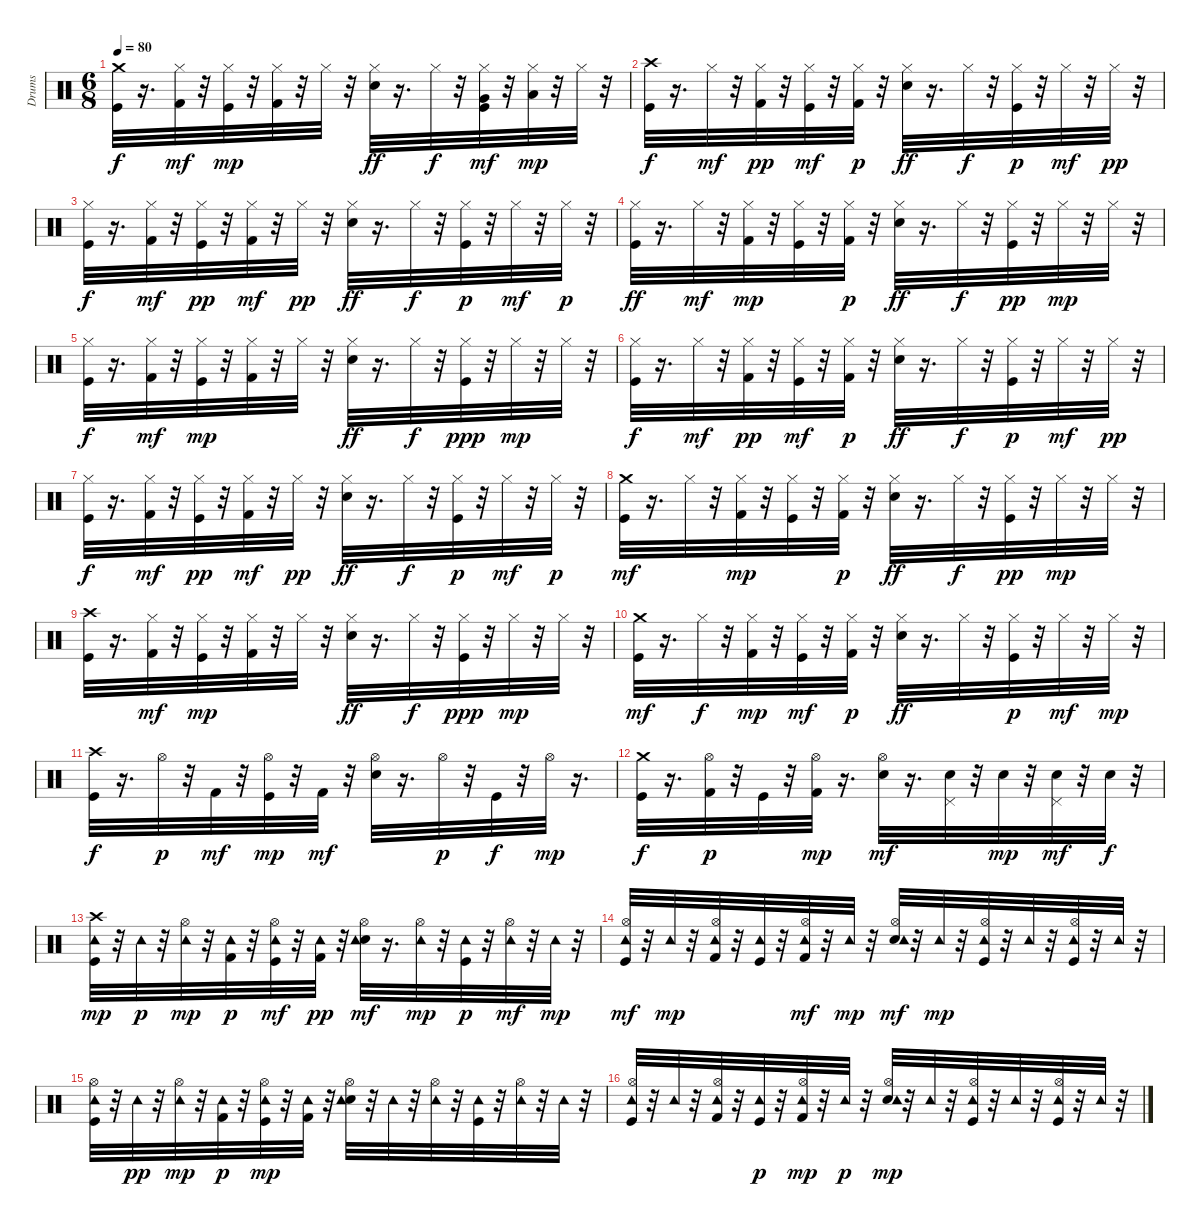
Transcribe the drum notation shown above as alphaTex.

\track ("Drums" "Drums") {instrument percussion}
\staff {score}
\articulation defaults
\ts (6 8)
\tempo 80
\clef neutral
\ks c
("Kick (hit)" "Crash medium (hit)").32{dy f} r.16{d} ("Kick (hit) 2" "Hi-Hat (closed)").32{dy mf} r.32 ("Kick (hit)" "Hi-Hat (closed)").32{dy mp} r.32 ("Kick (hit) 2" "Hi-Hat (closed)").32 r.32 "Hi-Hat (closed)".32 r.32 ("Electric Snare (hit)" "Hi-Hat (closed)").32{dy ff} r.16{d} "Hi-Hat (closed)".32{dy f} r.32 ("Kick (hit)" "Hi-Hat (closed)" "Very Low Tom (hit)").32{dy mf} r.32 ("Low Floor Tom (hit)" "Hi-Hat (closed)").32{dy mp} r.32 "Hi-Hat (closed)".32 r.32 |
("Kick (hit)" "Crash high (hit)").32{dy f} r.16{d} "Hi-Hat (closed)".32{dy mf} r.32 ("Kick (hit) 2" "Hi-Hat (closed)").32{dy pp} r.32 ("Kick (hit)" "Hi-Hat (closed)").32{dy mf} r.32 ("Kick (hit) 2" "Hi-Hat (closed)").32{dy p} r.32 ("Electric Snare (hit)" "Hi-Hat (closed)").32{dy ff} r.16{d} "Hi-Hat (closed)".32{dy f} r.32 ("Kick (hit)" "Hi-Hat (closed)").32{dy p} r.32 "Hi-Hat (closed)".32{dy mf} r.32 "Hi-Hat (closed)".32{dy pp} r.32 |
("Kick (hit)" "Hi-Hat (closed)").32{dy f} r.16{d} ("Kick (hit) 2" "Hi-Hat (closed)").32{dy mf} r.32 ("Kick (hit)" "Hi-Hat (closed)").32{dy pp} r.32 ("Kick (hit) 2" "Hi-Hat (closed)").32{dy mf} r.32 "Hi-Hat (closed)".32{dy pp} r.32 ("Electric Snare (hit)" "Hi-Hat (closed)").32{dy ff} r.16{d} "Hi-Hat (closed)".32{dy f} r.32 ("Kick (hit)" "Hi-Hat (closed)").32{dy p} r.32 "Hi-Hat (closed)".32{dy mf} r.32 "Hi-Hat (closed)".32{dy p} r.32 |
("Kick (hit)" "Hi-Hat (closed)").32{dy ff} r.16{d} "Hi-Hat (closed)".32{dy mf} r.32 ("Kick (hit) 2" "Hi-Hat (closed)").32{dy mp} r.32 ("Kick (hit)" "Hi-Hat (closed)").32 r.32 ("Kick (hit) 2" "Hi-Hat (closed)").32{dy p} r.32 ("Electric Snare (hit)" "Hi-Hat (closed)").32{dy ff} r.16{d} "Hi-Hat (closed)".32{dy f} r.32 ("Kick (hit)" "Hi-Hat (closed)").32{dy pp} r.32 "Hi-Hat (closed)".32{dy mp} r.32 "Hi-Hat (closed)".32 r.32 |
("Kick (hit)" "Hi-Hat (closed)").32{dy f} r.16{d} ("Kick (hit) 2" "Hi-Hat (closed)").32{dy mf} r.32 ("Kick (hit)" "Hi-Hat (closed)").32{dy mp} r.32 ("Kick (hit) 2" "Hi-Hat (closed)").32 r.32 "Hi-Hat (closed)".32 r.32 ("Electric Snare (hit)" "Hi-Hat (closed)").32{dy ff} r.16{d} "Hi-Hat (closed)".32{dy f} r.32 ("Kick (hit)" "Hi-Hat (closed)").32{dy ppp} r.32 "Hi-Hat (closed)".32{dy mp} r.32 "Hi-Hat (closed)".32 r.32 |
("Kick (hit)" "Hi-Hat (closed)").32{dy f} r.16{d} "Hi-Hat (closed)".32{dy mf} r.32 ("Kick (hit) 2" "Hi-Hat (closed)").32{dy pp} r.32 ("Kick (hit)" "Hi-Hat (closed)").32{dy mf} r.32 ("Kick (hit) 2" "Hi-Hat (closed)").32{dy p} r.32 ("Electric Snare (hit)" "Hi-Hat (closed)").32{dy ff} r.16{d} "Hi-Hat (closed)".32{dy f} r.32 ("Kick (hit)" "Hi-Hat (closed)").32{dy p} r.32 "Hi-Hat (closed)".32{dy mf} r.32 "Hi-Hat (closed)".32{dy pp} r.32 |
("Kick (hit)" "Hi-Hat (closed)").32{dy f} r.16{d} ("Kick (hit) 2" "Hi-Hat (closed)").32{dy mf} r.32 ("Kick (hit)" "Hi-Hat (closed)").32{dy pp} r.32 ("Kick (hit) 2" "Hi-Hat (closed)").32{dy mf} r.32 "Hi-Hat (closed)".32{dy pp} r.32 ("Electric Snare (hit)" "Hi-Hat (closed)").32{dy ff} r.16{d} "Hi-Hat (closed)".32{dy f} r.32 ("Kick (hit)" "Hi-Hat (closed)").32{dy p} r.32 "Hi-Hat (closed)".32{dy mf} r.32 "Hi-Hat (closed)".32{dy p} r.32 |
("Kick (hit)" "Crash medium (hit)").32{dy mf} r.16{d} "Hi-Hat (closed)".32 r.32 ("Kick (hit) 2" "Hi-Hat (closed)").32{dy mp} r.32 ("Kick (hit)" "Hi-Hat (closed)").32 r.32 ("Kick (hit) 2" "Hi-Hat (closed)").32{dy p} r.32 ("Electric Snare (hit)" "Hi-Hat (closed)").32{dy ff} r.16{d} "Hi-Hat (closed)".32{dy f} r.32 ("Kick (hit)" "Hi-Hat (closed)").32{dy pp} r.32 "Hi-Hat (closed)".32{dy mp} r.32 "Hi-Hat (closed)".32 r.32 |
("Kick (hit)" "Crash high (hit)").32 r.16{d} ("Kick (hit) 2" "Hi-Hat (closed)").32{dy mf} r.32 ("Kick (hit)" "Hi-Hat (closed)").32{dy mp} r.32 ("Kick (hit) 2" "Hi-Hat (closed)").32 r.32 "Hi-Hat (closed)".32 r.32 ("Electric Snare (hit)" "Hi-Hat (closed)").32{dy ff} r.16{d} "Hi-Hat (closed)".32{dy f} r.32 ("Kick (hit)" "Hi-Hat (closed)").32{dy ppp} r.32 "Hi-Hat (closed)".32{dy mp} r.32 "Hi-Hat (closed)".32 r.32 |
("Kick (hit)" "Crash medium (hit)").32{dy mf} r.16{d} "Hi-Hat (closed)".32{dy f} r.32 ("Kick (hit) 2" "Hi-Hat (closed)").32{dy mp} r.32 ("Kick (hit)" "Hi-Hat (closed)").32{dy mf} r.32 ("Kick (hit) 2" "Hi-Hat (closed)").32{dy p} r.32 ("Electric Snare (hit)" "Hi-Hat (closed)").32{dy ff} r.16{d} "Hi-Hat (closed)".32 r.32 ("Kick (hit)" "Hi-Hat (closed)").32{dy p} r.32 "Hi-Hat (closed)".32{dy mf} r.32 "Hi-Hat (closed)".32{dy mp} r.32 |
("Kick (hit)" "Crash high (hit)").32{dy f} r.16{d} "Hi-Hat (open)".32{dy p} r.32 "Kick (hit) 2".32{dy mf} r.32 ("Kick (hit)" "Hi-Hat (open)").32{dy mp} r.32 "Kick (hit) 2".32{dy mf} r.32 ("Electric Snare (hit)" "Hi-Hat (open)").32 r.16{d} "Hi-Hat (open)".32{dy p} r.32 "Kick (hit)".32{dy f} r.32 "Hi-Hat (open)".32{dy mp} r.16{d} |
("Kick (hit)" "Crash medium (hit)").32{dy f} r.16{d} ("Kick (hit) 2" "Hi-Hat (open)").32{dy p} r.32 "Kick (hit)".32 r.32 ("Kick (hit) 2" "Hi-Hat (open)").32{dy mp} r.16{d} ("Electric Snare (hit)" "Hi-Hat (open)").32{dy mf} r.16{d} ("Electric Snare (hit)" "Pedal Hi-Hat (hit)").32 r.32 "Electric Snare (hit)".32{dy mp} r.32 ("Electric Snare (hit)" "Pedal Hi-Hat (hit)").32{dy mf} r.32 "Electric Snare (hit)".32{dy f} r.32 |
("Kick (hit)" "Crash high (hit)" "Tambourine (hit)").32{dy mp} r.32 "Tambourine (hit)".32{dy p} r.32 ("Hi-Hat (open)" "Tambourine (hit)").32{dy mp} r.32 ("Kick (hit) 2" "Tambourine (hit)").32{dy p} r.32 ("Kick (hit)" "Hi-Hat (open)" "Tambourine (hit)").32{dy mf} r.32 ("Kick (hit) 2" "Tambourine (hit)").32{dy pp} r.32 ("Electric Snare (hit)" "Hi-Hat (open)" "Tambourine (hit)").32{dy mf} r.16{d} ("Hi-Hat (open)" "Tambourine (hit)").32{dy mp} r.32 ("Kick (hit)" "Tambourine (hit)").32{dy p} r.32 ("Hi-Hat (open)" "Tambourine (hit)").32{dy mf} r.32 "Tambourine (hit)".32{dy mp} r.32 |
("Kick (hit)" "Hi-Hat (open)" "Tambourine (hit)").32{dy mf} r.32 "Tambourine (hit)".32{dy mp} r.32 ("Kick (hit) 2" "Hi-Hat (open)" "Tambourine (hit)").32 r.32 ("Kick (hit)" "Tambourine (hit)").32 r.32 ("Kick (hit) 2" "Hi-Hat (open)" "Tambourine (hit)").32{dy mf} r.32 "Tambourine (hit)".32{dy mp} r.32 ("Electric Snare (hit)" "Hi-Hat (open)" "Tambourine (hit)").32{dy mf} r.32 "Tambourine (hit)".32{dy mp} r.32 ("Kick (hit)" "Hi-Hat (open)" "Tambourine (hit)").32 r.32 "Tambourine (hit)".32 r.32 ("Kick (hit)" "Hi-Hat (open)" "Tambourine (hit)").32 r.32 "Tambourine (hit)".32 r.32 |
("Kick (hit)" "Hi-Hat (open)" "Tambourine (hit)").32 r.32 "Tambourine (hit)".32{dy pp} r.32 ("Hi-Hat (open)" "Tambourine (hit)").32{dy mp} r.32 ("Kick (hit) 2" "Tambourine (hit)").32{dy p} r.32 ("Kick (hit)" "Hi-Hat (open)" "Tambourine (hit)").32{dy mp} r.32 ("Kick (hit) 2" "Tambourine (hit)").32 r.32 ("Electric Snare (hit)" "Hi-Hat (open)" "Tambourine (hit)").32 r.32 "Tambourine (hit)".32 r.32 ("Hi-Hat (open)" "Tambourine (hit)").32 r.32 ("Kick (hit)" "Tambourine (hit)").32 r.32 ("Hi-Hat (open)" "Tambourine (hit)").32 r.32 "Tambourine (hit)".32 r.32 |
("Kick (hit)" "Hi-Hat (open)" "Tambourine (hit)").32 r.32 "Tambourine (hit)".32 r.32 ("Kick (hit) 2" "Hi-Hat (open)" "Tambourine (hit)").32 r.32 ("Kick (hit)" "Tambourine (hit)").32{dy p} r.32 ("Kick (hit) 2" "Hi-Hat (open)" "Tambourine (hit)").32{dy mp} r.32 "Tambourine (hit)".32{dy p} r.32 ("Electric Snare (hit)" "Hi-Hat (open)" "Tambourine (hit)").32{dy mp} r.32 "Tambourine (hit)".32 r.32 ("Kick (hit)" "Hi-Hat (open)" "Tambourine (hit)").32 r.32 "Tambourine (hit)".32 r.32 ("Kick (hit)" "Hi-Hat (open)" "Tambourine (hit)").32 r.32 "Tambourine (hit)".32 r.32
